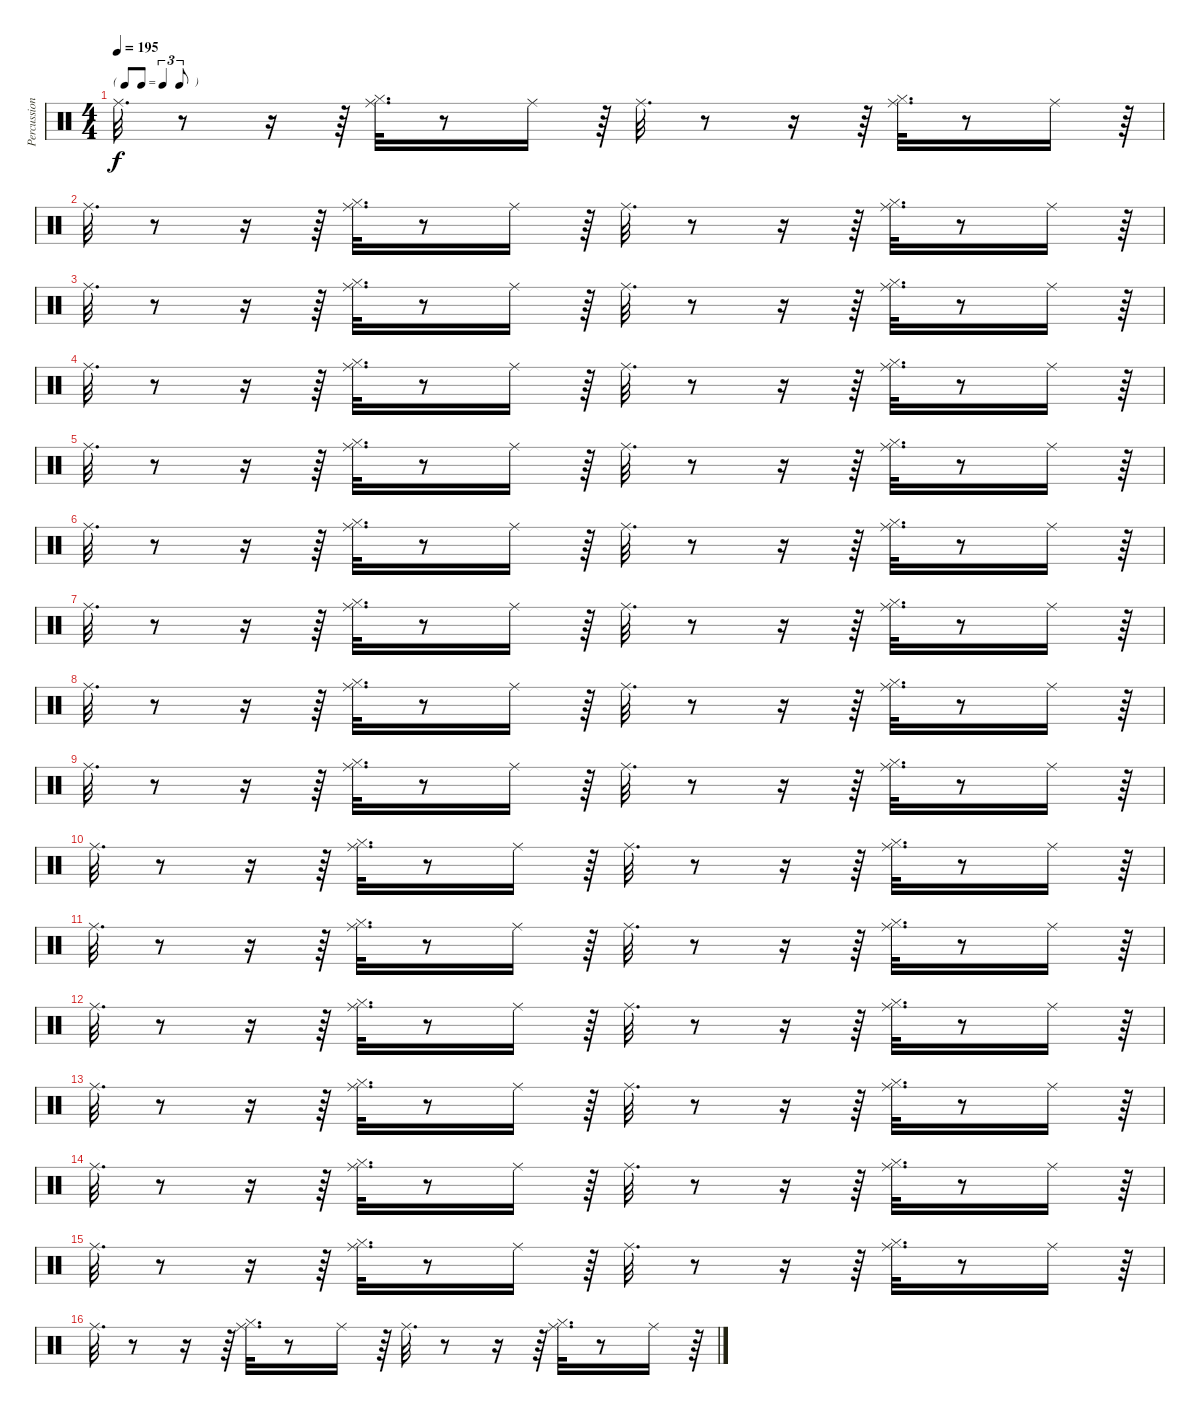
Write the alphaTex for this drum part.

\track ("Percussion" "Percussion") {instrument percussion}
\staff {score}
\articulation defaults
\ts (4 4)
\tf triplet8th
\tempo 195
\clef neutral
\ks c "Ride (middle)".32{d dy f}
r.8 r.16 r.64 ("Hi-Hat (closed)" "Ride (middle)").32{d} r.8 "Ride (middle)".16 r.64 "Ride (middle)".32{d} r.8 r.16 r.64 ("Hi-Hat (closed)" "Ride (middle)").32{d} r.8 "Ride (middle)".16 r.64 |
"Ride (middle)".32{d} r.8 r.16 r.64 ("Hi-Hat (closed)" "Ride (middle)").32{d} r.8 "Ride (middle)".16 r.64 "Ride (middle)".32{d} r.8 r.16 r.64 ("Hi-Hat (closed)" "Ride (middle)").32{d} r.8 "Ride (middle)".16 r.64 |
"Ride (middle)".32{d} r.8 r.16 r.64 ("Hi-Hat (closed)" "Ride (middle)").32{d} r.8 "Ride (middle)".16 r.64 "Ride (middle)".32{d} r.8 r.16 r.64 ("Hi-Hat (closed)" "Ride (middle)").32{d} r.8 "Ride (middle)".16 r.64 |
"Ride (middle)".32{d} r.8 r.16 r.64 ("Hi-Hat (closed)" "Ride (middle)").32{d} r.8 "Ride (middle)".16 r.64 "Ride (middle)".32{d} r.8 r.16 r.64 ("Hi-Hat (closed)" "Ride (middle)").32{d} r.8 "Ride (middle)".16 r.64 |
"Ride (middle)".32{d} r.8 r.16 r.64 ("Hi-Hat (closed)" "Ride (middle)").32{d} r.8 "Ride (middle)".16 r.64 "Ride (middle)".32{d} r.8 r.16 r.64 ("Hi-Hat (closed)" "Ride (middle)").32{d} r.8 "Ride (middle)".16 r.64 |
"Ride (middle)".32{d} r.8 r.16 r.64 ("Hi-Hat (closed)" "Ride (middle)").32{d} r.8 "Ride (middle)".16 r.64 "Ride (middle)".32{d} r.8 r.16 r.64 ("Hi-Hat (closed)" "Ride (middle)").32{d} r.8 "Ride (middle)".16 r.64 |
"Ride (middle)".32{d} r.8 r.16 r.64 ("Hi-Hat (closed)" "Ride (middle)").32{d} r.8 "Ride (middle)".16 r.64 "Ride (middle)".32{d} r.8 r.16 r.64 ("Hi-Hat (closed)" "Ride (middle)").32{d} r.8 "Ride (middle)".16 r.64 |
"Ride (middle)".32{d} r.8 r.16 r.64 ("Hi-Hat (closed)" "Ride (middle)").32{d} r.8 "Ride (middle)".16 r.64 "Ride (middle)".32{d} r.8 r.16 r.64 ("Hi-Hat (closed)" "Ride (middle)").32{d} r.8 "Ride (middle)".16 r.64 |
"Ride (middle)".32{d} r.8 r.16 r.64 ("Hi-Hat (closed)" "Ride (middle)").32{d} r.8 "Ride (middle)".16 r.64 "Ride (middle)".32{d} r.8 r.16 r.64 ("Hi-Hat (closed)" "Ride (middle)").32{d} r.8 "Ride (middle)".16 r.64 |
"Ride (middle)".32{d} r.8 r.16 r.64 ("Hi-Hat (closed)" "Ride (middle)").32{d} r.8 "Ride (middle)".16 r.64 "Ride (middle)".32{d} r.8 r.16 r.64 ("Hi-Hat (closed)" "Ride (middle)").32{d} r.8 "Ride (middle)".16 r.64 |
"Ride (middle)".32{d} r.8 r.16 r.64 ("Hi-Hat (closed)" "Ride (middle)").32{d} r.8 "Ride (middle)".16 r.64 "Ride (middle)".32{d} r.8 r.16 r.64 ("Hi-Hat (closed)" "Ride (middle)").32{d} r.8 "Ride (middle)".16 r.64 |
"Ride (middle)".32{d} r.8 r.16 r.64 ("Hi-Hat (closed)" "Ride (middle)").32{d} r.8 "Ride (middle)".16 r.64 "Ride (middle)".32{d} r.8 r.16 r.64 ("Hi-Hat (closed)" "Ride (middle)").32{d} r.8 "Ride (middle)".16 r.64 |
"Ride (middle)".32{d} r.8 r.16 r.64 ("Hi-Hat (closed)" "Ride (middle)").32{d} r.8 "Ride (middle)".16 r.64 "Ride (middle)".32{d} r.8 r.16 r.64 ("Hi-Hat (closed)" "Ride (middle)").32{d} r.8 "Ride (middle)".16 r.64 |
"Ride (middle)".32{d} r.8 r.16 r.64 ("Hi-Hat (closed)" "Ride (middle)").32{d} r.8 "Ride (middle)".16 r.64 "Ride (middle)".32{d} r.8 r.16 r.64 ("Hi-Hat (closed)" "Ride (middle)").32{d} r.8 "Ride (middle)".16 r.64 |
"Ride (middle)".32{d} r.8 r.16 r.64 ("Hi-Hat (closed)" "Ride (middle)").32{d} r.8 "Ride (middle)".16 r.64 "Ride (middle)".32{d} r.8 r.16 r.64 ("Hi-Hat (closed)" "Ride (middle)").32{d} r.8 "Ride (middle)".16 r.64 |
"Ride (middle)".32{d} r.8 r.16 r.64 ("Hi-Hat (closed)" "Ride (middle)").32{d} r.8 "Ride (middle)".16 r.64 "Ride (middle)".32{d} r.8 r.16 r.64 ("Hi-Hat (closed)" "Ride (middle)").32{d} r.8 "Ride (middle)".16 r.64
